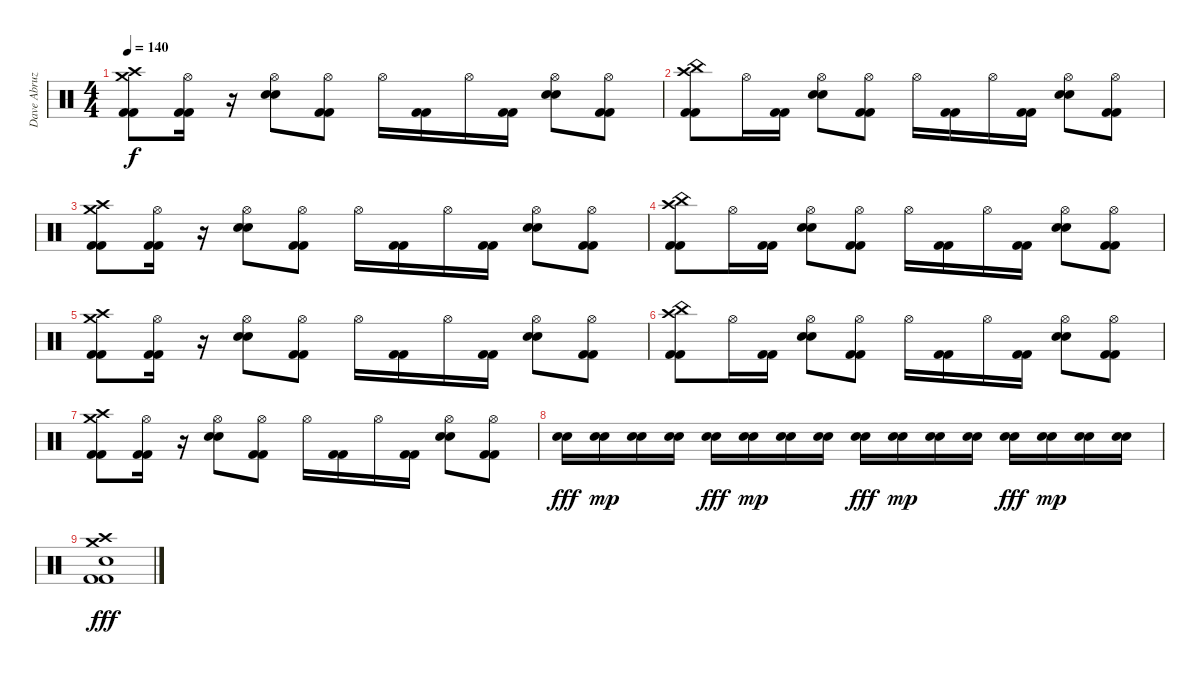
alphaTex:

\track ("Dave Abruzzese" "Dave Abruz") {instrument percussion}
\staff {score}
\articulation defaults
\ts (4 4)
\tempo 140
\clef neutral
\ks c
("Crash medium (hit)" "Kick (hit) 2" "Kick (hit) 2" "Crash high (hit)").8{dy f} ("Kick (hit) 2" "Kick (hit) 2" "Hi-Hat (open)").16 r.16 ("Electric Snare (hit)" "Electric Snare (hit)" "Hi-Hat (open)").8 ("Kick (hit) 2" "Kick (hit) 2" "Hi-Hat (open)").8 "Hi-Hat (open)".16 ("Kick (hit) 2" "Kick (hit) 2").16 "Hi-Hat (open)".16 ("Kick (hit) 2" "Kick (hit) 2").16 ("Electric Snare (hit)" "Electric Snare (hit)" "Hi-Hat (open)").8 ("Kick (hit) 2" "Kick (hit) 2" "Hi-Hat (open)").8 |
("Kick (hit) 2" "Kick (hit) 2" "Crash high (hit)" "China (hit)").8 "Hi-Hat (open)".16 ("Kick (hit) 2" "Kick (hit) 2").16 ("Electric Snare (hit)" "Electric Snare (hit)" "Hi-Hat (open)").8 ("Kick (hit) 2" "Kick (hit) 2" "Hi-Hat (open)").8 "Hi-Hat (open)".16 ("Kick (hit) 2" "Kick (hit) 2").16 "Hi-Hat (open)".16 ("Kick (hit) 2" "Kick (hit) 2").16 ("Electric Snare (hit)" "Electric Snare (hit)" "Hi-Hat (open)").8 ("Kick (hit) 2" "Kick (hit) 2" "Hi-Hat (open)").8 |
("Crash medium (hit)" "Kick (hit) 2" "Kick (hit) 2" "Crash high (hit)").8 ("Kick (hit) 2" "Kick (hit) 2" "Hi-Hat (open)").16 r.16 ("Electric Snare (hit)" "Electric Snare (hit)" "Hi-Hat (open)").8 ("Kick (hit) 2" "Kick (hit) 2" "Hi-Hat (open)").8 "Hi-Hat (open)".16 ("Kick (hit) 2" "Kick (hit) 2").16 "Hi-Hat (open)".16 ("Kick (hit) 2" "Kick (hit) 2").16 ("Electric Snare (hit)" "Electric Snare (hit)" "Hi-Hat (open)").8 ("Kick (hit) 2" "Kick (hit) 2" "Hi-Hat (open)").8 |
("Kick (hit) 2" "Kick (hit) 2" "Crash high (hit)" "China (hit)").8 "Hi-Hat (open)".16 ("Kick (hit) 2" "Kick (hit) 2").16 ("Electric Snare (hit)" "Electric Snare (hit)" "Hi-Hat (open)").8 ("Kick (hit) 2" "Kick (hit) 2" "Hi-Hat (open)").8 "Hi-Hat (open)".16 ("Kick (hit) 2" "Kick (hit) 2").16 "Hi-Hat (open)".16 ("Kick (hit) 2" "Kick (hit) 2").16 ("Electric Snare (hit)" "Electric Snare (hit)" "Hi-Hat (open)").8 ("Kick (hit) 2" "Kick (hit) 2" "Hi-Hat (open)").8 |
("Crash medium (hit)" "Kick (hit) 2" "Kick (hit) 2" "Crash high (hit)").8 ("Kick (hit) 2" "Kick (hit) 2" "Hi-Hat (open)").16 r.16 ("Electric Snare (hit)" "Electric Snare (hit)" "Hi-Hat (open)").8 ("Kick (hit) 2" "Kick (hit) 2" "Hi-Hat (open)").8 "Hi-Hat (open)".16 ("Kick (hit) 2" "Kick (hit) 2").16 "Hi-Hat (open)".16 ("Kick (hit) 2" "Kick (hit) 2").16 ("Electric Snare (hit)" "Electric Snare (hit)" "Hi-Hat (open)").8 ("Kick (hit) 2" "Kick (hit) 2" "Hi-Hat (open)").8 |
("Kick (hit) 2" "Kick (hit) 2" "Crash high (hit)" "China (hit)").8 "Hi-Hat (open)".16 ("Kick (hit) 2" "Kick (hit) 2").16 ("Electric Snare (hit)" "Electric Snare (hit)" "Hi-Hat (open)").8 ("Kick (hit) 2" "Kick (hit) 2" "Hi-Hat (open)").8 "Hi-Hat (open)".16 ("Kick (hit) 2" "Kick (hit) 2").16 "Hi-Hat (open)".16 ("Kick (hit) 2" "Kick (hit) 2").16 ("Electric Snare (hit)" "Electric Snare (hit)" "Hi-Hat (open)").8 ("Kick (hit) 2" "Kick (hit) 2" "Hi-Hat (open)").8 |
("Crash medium (hit)" "Kick (hit) 2" "Kick (hit) 2" "Crash high (hit)").8 ("Kick (hit) 2" "Kick (hit) 2" "Hi-Hat (open)").16 r.16 ("Electric Snare (hit)" "Electric Snare (hit)" "Hi-Hat (open)").8 ("Kick (hit) 2" "Kick (hit) 2" "Hi-Hat (open)").8 "Hi-Hat (open)".16 ("Kick (hit) 2" "Kick (hit) 2").16 "Hi-Hat (open)".16 ("Kick (hit) 2" "Kick (hit) 2").16 ("Electric Snare (hit)" "Electric Snare (hit)" "Hi-Hat (open)").8 ("Kick (hit) 2" "Kick (hit) 2" "Hi-Hat (open)").8 |
("Electric Snare (hit)" "Electric Snare (hit)").16{dy fff} ("Electric Snare (hit)" "Electric Snare (hit)").16{dy mp} ("Electric Snare (hit)" "Electric Snare (hit)").16 ("Electric Snare (hit)" "Electric Snare (hit)").16 ("Electric Snare (hit)" "Electric Snare (hit)").16{dy fff} ("Electric Snare (hit)" "Electric Snare (hit)").16{dy mp} ("Electric Snare (hit)" "Electric Snare (hit)").16 ("Electric Snare (hit)" "Electric Snare (hit)").16 ("Electric Snare (hit)" "Electric Snare (hit)").16{dy fff} ("Electric Snare (hit)" "Electric Snare (hit)").16{dy mp} ("Electric Snare (hit)" "Electric Snare (hit)").16 ("Electric Snare (hit)" "Electric Snare (hit)").16 ("Electric Snare (hit)" "Electric Snare (hit)").16{dy fff} ("Electric Snare (hit)" "Electric Snare (hit)").16{dy mp} ("Electric Snare (hit)" "Electric Snare (hit)").16 ("Electric Snare (hit)" "Electric Snare (hit)").16 |
("Kick (hit) 2" "Kick (hit) 2" "Electric Snare (hit)" "Crash high (hit)" "Crash medium (hit)").1{dy fff}
